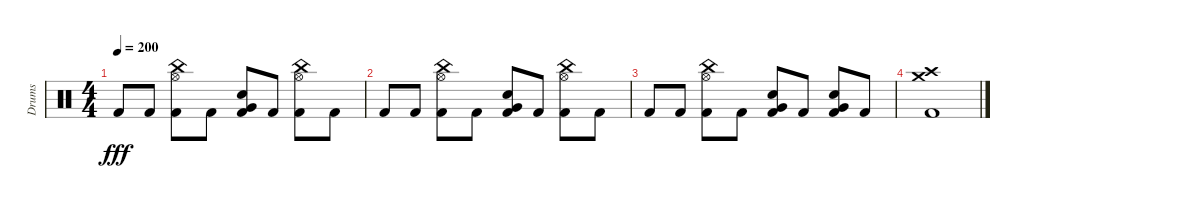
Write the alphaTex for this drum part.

\track ("Drums" "Drums") {instrument percussion}
\staff {score}
\articulation defaults
\ts (4 4)
\tempo 200
\clef neutral
\ks c "Kick (hit) 2".8{dy fff} "Kick (hit) 2".8
("China (hit)" "Hi-Hat (open)" "Kick (hit) 2").8 "Kick (hit) 2".8 ("Very Low Tom (hit)" "Electric Snare (hit)" "Kick (hit) 2").8 "Kick (hit) 2".8 ("China (hit)" "Hi-Hat (open)" "Kick (hit) 2").8 "Kick (hit) 2".8 |
"Kick (hit) 2".8 "Kick (hit) 2".8 ("China (hit)" "Hi-Hat (open)" "Kick (hit) 2").8 "Kick (hit) 2".8 ("Very Low Tom (hit)" "Electric Snare (hit)" "Kick (hit) 2").8 "Kick (hit) 2".8 ("China (hit)" "Hi-Hat (open)" "Kick (hit) 2").8 "Kick (hit) 2".8 |
"Kick (hit) 2".8 "Kick (hit) 2".8 ("China (hit)" "Hi-Hat (open)" "Kick (hit) 2").8 "Kick (hit) 2".8 ("Very Low Tom (hit)" "Electric Snare (hit)" "Kick (hit) 2").8 "Kick (hit) 2".8 ("Very Low Tom (hit)" "Electric Snare (hit)" "Kick (hit) 2").8 "Kick (hit) 2".8 |
("Crash high (hit)" "Crash medium (hit)" "Kick (hit) 2").1
